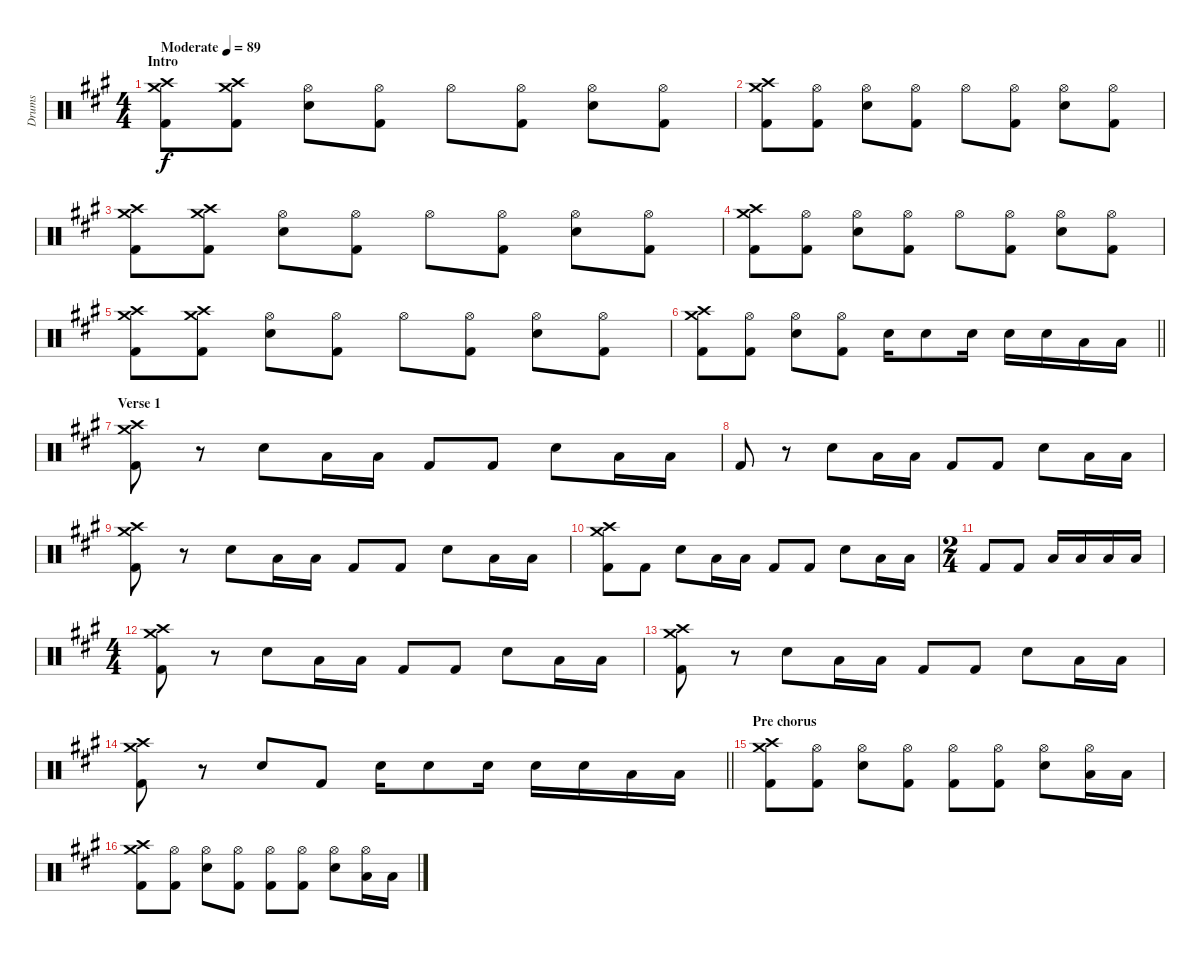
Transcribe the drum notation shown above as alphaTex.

\track ("Drums" "Drums") {instrument percussion}
\staff {score}
\articulation defaults
\ts (4 4)
\section ("" "Intro")
\tempo (89 "Moderate")
\clef neutral
\ks a
("Crash high (hit)" "Crash medium (hit)" "Kick (hit) 2").8{dy f} ("Crash high (hit)" "Crash medium (hit)" "Kick (hit) 2").8 ("Hi-Hat (open)" "Snare (hit) 2").8 ("Hi-Hat (open)" "Kick (hit) 2").8 "Hi-Hat (open)".8 ("Hi-Hat (open)" "Kick (hit) 2").8 ("Hi-Hat (open)" "Snare (hit) 2").8 ("Hi-Hat (open)" "Kick (hit) 2").8 |
("Crash high (hit)" "Crash medium (hit)" "Kick (hit) 2").8 ("Hi-Hat (open)" "Kick (hit) 2").8 ("Hi-Hat (open)" "Snare (hit) 2").8 ("Hi-Hat (open)" "Kick (hit) 2").8 "Hi-Hat (open)".8 ("Hi-Hat (open)" "Kick (hit) 2").8 ("Hi-Hat (open)" "Snare (hit) 2").8 ("Hi-Hat (open)" "Kick (hit) 2").8 |
("Crash high (hit)" "Crash medium (hit)" "Kick (hit) 2").8 ("Crash high (hit)" "Crash medium (hit)" "Kick (hit) 2").8 ("Hi-Hat (open)" "Snare (hit) 2").8 ("Hi-Hat (open)" "Kick (hit) 2").8 "Hi-Hat (open)".8 ("Hi-Hat (open)" "Kick (hit) 2").8 ("Hi-Hat (open)" "Snare (hit) 2").8 ("Hi-Hat (open)" "Kick (hit) 2").8 |
("Crash high (hit)" "Crash medium (hit)" "Kick (hit) 2").8 ("Hi-Hat (open)" "Kick (hit) 2").8 ("Hi-Hat (open)" "Snare (hit) 2").8 ("Hi-Hat (open)" "Kick (hit) 2").8 "Hi-Hat (open)".8 ("Hi-Hat (open)" "Kick (hit) 2").8 ("Hi-Hat (open)" "Snare (hit) 2").8 ("Hi-Hat (open)" "Kick (hit) 2").8 |
("Crash high (hit)" "Crash medium (hit)" "Kick (hit) 2").8 ("Crash high (hit)" "Crash medium (hit)" "Kick (hit) 2").8 ("Hi-Hat (open)" "Snare (hit) 2").8 ("Hi-Hat (open)" "Kick (hit) 2").8 "Hi-Hat (open)".8 ("Hi-Hat (open)" "Kick (hit) 2").8 ("Hi-Hat (open)" "Snare (hit) 2").8 ("Hi-Hat (open)" "Kick (hit) 2").8 |
\barLineRight lightlight
("Crash high (hit)" "Crash medium (hit)" "Kick (hit) 2").8 ("Hi-Hat (open)" "Kick (hit) 2").8 ("Hi-Hat (open)" "Snare (hit) 2").8 ("Hi-Hat (open)" "Kick (hit) 2").8 "Snare (hit) 2".16 "Snare (hit) 2".8 "Snare (hit) 2".16 "Snare (hit) 2".16 "Snare (hit) 2".16 "Low Tom (hit)".16 "Low Tom (hit)".16 |
\section ("" "Verse 1")
("Crash high (hit)" "Crash medium (hit)" "Kick (hit) 2").8 r.8 "Snare (hit) 2".8 "Low Tom (hit)".16 "Low Tom (hit)".16 "Kick (hit) 2".8 "Kick (hit) 2".8 "Snare (hit) 2".8 "Low Tom (hit)".16 "Low Tom (hit)".16 |
"Kick (hit) 2".8 r.8 "Snare (hit) 2".8 "Low Tom (hit)".16 "Low Tom (hit)".16 "Kick (hit) 2".8 "Kick (hit) 2".8 "Snare (hit) 2".8 "Low Tom (hit)".16 "Low Tom (hit)".16 |
("Crash high (hit)" "Crash medium (hit)" "Kick (hit) 2").8 r.8 "Snare (hit) 2".8 "Low Tom (hit)".16 "Low Tom (hit)".16 "Kick (hit) 2".8 "Kick (hit) 2".8 "Snare (hit) 2".8 "Low Tom (hit)".16 "Low Tom (hit)".16 |
("Crash high (hit)" "Crash medium (hit)" "Kick (hit) 2").8 "Kick (hit) 2".8 "Snare (hit) 2".8 "Low Tom (hit)".16 "Low Tom (hit)".16 "Kick (hit) 2".8 "Kick (hit) 2".8 "Snare (hit) 2".8 "Low Tom (hit)".16 "Low Tom (hit)".16 |
\ts (2 4)
"Kick (hit) 2".8 "Kick (hit) 2".8 "Low Tom (hit)".16 "Low Tom (hit)".16 "Low Floor Tom (hit)".16 "Low Floor Tom (hit)".16 |
\ts (4 4)
("Crash high (hit)" "Crash medium (hit)" "Kick (hit) 2").8 r.8 "Snare (hit) 2".8 "Low Tom (hit)".16 "Low Tom (hit)".16 "Kick (hit) 2".8 "Kick (hit) 2".8 "Snare (hit) 2".8 "Low Tom (hit)".16 "Low Tom (hit)".16 |
("Crash high (hit)" "Crash medium (hit)" "Kick (hit) 2").8 r.8 "Snare (hit) 2".8 "Low Tom (hit)".16 "Low Tom (hit)".16 "Kick (hit) 2".8 "Kick (hit) 2".8 "Snare (hit) 2".8 "Low Tom (hit)".16 "Low Tom (hit)".16 |
\barLineRight lightlight
("Crash high (hit)" "Crash medium (hit)" "Kick (hit) 2").8 r.8 "Snare (hit) 2".8 "Kick (hit) 2".8 "Snare (hit) 2".16 "Snare (hit) 2".8 "Snare (hit) 2".16 "Snare (hit) 2".16 "Snare (hit) 2".16 "Low Tom (hit)".16 "Low Tom (hit)".16 |
\section ("" "Pre chorus")
("Crash high (hit)" "Crash medium (hit)" "Kick (hit) 2").8 ("Hi-Hat (open)" "Kick (hit) 2").8 ("Hi-Hat (open)" "Snare (hit) 2").8 ("Hi-Hat (open)" "Kick (hit) 2").8 ("Hi-Hat (open)" "Kick (hit) 2").8 ("Hi-Hat (open)" "Kick (hit) 2").8 ("Hi-Hat (open)" "Snare (hit) 2").8 ("Hi-Hat (open)" "Low Tom (hit)").16 "Low Tom (hit)".16 |
("Crash high (hit)" "Crash medium (hit)" "Kick (hit) 2").8 ("Hi-Hat (open)" "Kick (hit) 2").8 ("Hi-Hat (open)" "Snare (hit) 2").8 ("Hi-Hat (open)" "Kick (hit) 2").8 ("Hi-Hat (open)" "Kick (hit) 2").8 ("Hi-Hat (open)" "Kick (hit) 2").8 ("Hi-Hat (open)" "Snare (hit) 2").8 ("Hi-Hat (open)" "Low Tom (hit)").16 "Low Tom (hit)".16
